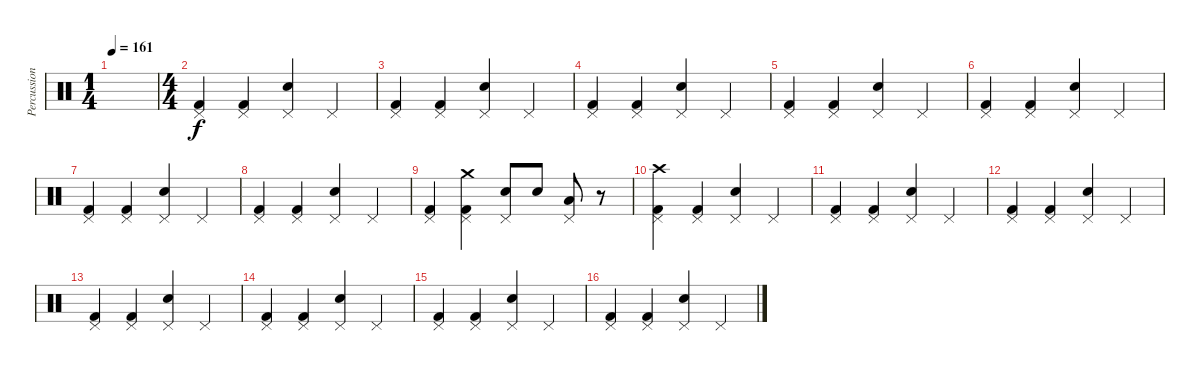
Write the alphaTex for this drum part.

\track ("Percussion" "Percussion") {instrument percussion}
\staff {score}
\articulation defaults
\ts (1 4)
\tempo 161
\clef neutral
\ks c
|
\ts (4 4)
("Pedal Hi-Hat (hit)" "Kick (hit) 2").4 ("Pedal Hi-Hat (hit)" "Kick (hit) 2").4 ("Pedal Hi-Hat (hit)" "Electric Snare (hit)").4 "Pedal Hi-Hat (hit)".4 |
("Pedal Hi-Hat (hit)" "Kick (hit) 2").4 ("Pedal Hi-Hat (hit)" "Kick (hit) 2").4 ("Pedal Hi-Hat (hit)" "Electric Snare (hit)").4 "Pedal Hi-Hat (hit)".4 |
("Pedal Hi-Hat (hit)" "Kick (hit) 2").4 ("Pedal Hi-Hat (hit)" "Kick (hit) 2").4 ("Pedal Hi-Hat (hit)" "Electric Snare (hit)").4 "Pedal Hi-Hat (hit)".4 |
("Pedal Hi-Hat (hit)" "Kick (hit) 2").4 ("Pedal Hi-Hat (hit)" "Kick (hit) 2").4 ("Pedal Hi-Hat (hit)" "Electric Snare (hit)").4 "Pedal Hi-Hat (hit)".4 |
("Pedal Hi-Hat (hit)" "Kick (hit) 2").4 ("Pedal Hi-Hat (hit)" "Kick (hit) 2").4 ("Pedal Hi-Hat (hit)" "Electric Snare (hit)").4 "Pedal Hi-Hat (hit)".4 |
("Pedal Hi-Hat (hit)" "Kick (hit) 2").4 ("Pedal Hi-Hat (hit)" "Kick (hit) 2").4 ("Pedal Hi-Hat (hit)" "Electric Snare (hit)").4 "Pedal Hi-Hat (hit)".4 |
("Pedal Hi-Hat (hit)" "Kick (hit) 2").4 ("Pedal Hi-Hat (hit)" "Kick (hit) 2").4 ("Pedal Hi-Hat (hit)" "Electric Snare (hit)").4 "Pedal Hi-Hat (hit)".4 |
("Pedal Hi-Hat (hit)" "Kick (hit) 2").4 ("Pedal Hi-Hat (hit)" "Crash medium (hit)" "Kick (hit) 2").4 ("Pedal Hi-Hat (hit)" "Electric Snare (hit)").8 "Electric Snare (hit)".8 ("Pedal Hi-Hat (hit)" "Low Tom (hit)").8 r.8 |
("Crash high (hit)" "Pedal Hi-Hat (hit)" "Kick (hit) 2").4 ("Pedal Hi-Hat (hit)" "Kick (hit) 2").4 ("Pedal Hi-Hat (hit)" "Electric Snare (hit)").4 "Pedal Hi-Hat (hit)".4 |
("Pedal Hi-Hat (hit)" "Kick (hit) 2").4 ("Pedal Hi-Hat (hit)" "Kick (hit) 2").4 ("Pedal Hi-Hat (hit)" "Electric Snare (hit)").4 "Pedal Hi-Hat (hit)".4 |
("Pedal Hi-Hat (hit)" "Kick (hit) 2").4 ("Pedal Hi-Hat (hit)" "Kick (hit) 2").4 ("Pedal Hi-Hat (hit)" "Electric Snare (hit)").4 "Pedal Hi-Hat (hit)".4 |
("Pedal Hi-Hat (hit)" "Kick (hit) 2").4 ("Pedal Hi-Hat (hit)" "Kick (hit) 2").4 ("Pedal Hi-Hat (hit)" "Electric Snare (hit)").4 "Pedal Hi-Hat (hit)".4 |
("Pedal Hi-Hat (hit)" "Kick (hit) 2").4 ("Pedal Hi-Hat (hit)" "Kick (hit) 2").4 ("Pedal Hi-Hat (hit)" "Electric Snare (hit)").4 "Pedal Hi-Hat (hit)".4 |
("Pedal Hi-Hat (hit)" "Kick (hit) 2").4 ("Pedal Hi-Hat (hit)" "Kick (hit) 2").4 ("Pedal Hi-Hat (hit)" "Electric Snare (hit)").4 "Pedal Hi-Hat (hit)".4 |
("Pedal Hi-Hat (hit)" "Kick (hit) 2").4 ("Pedal Hi-Hat (hit)" "Kick (hit) 2").4 ("Pedal Hi-Hat (hit)" "Electric Snare (hit)").4 "Pedal Hi-Hat (hit)".4
